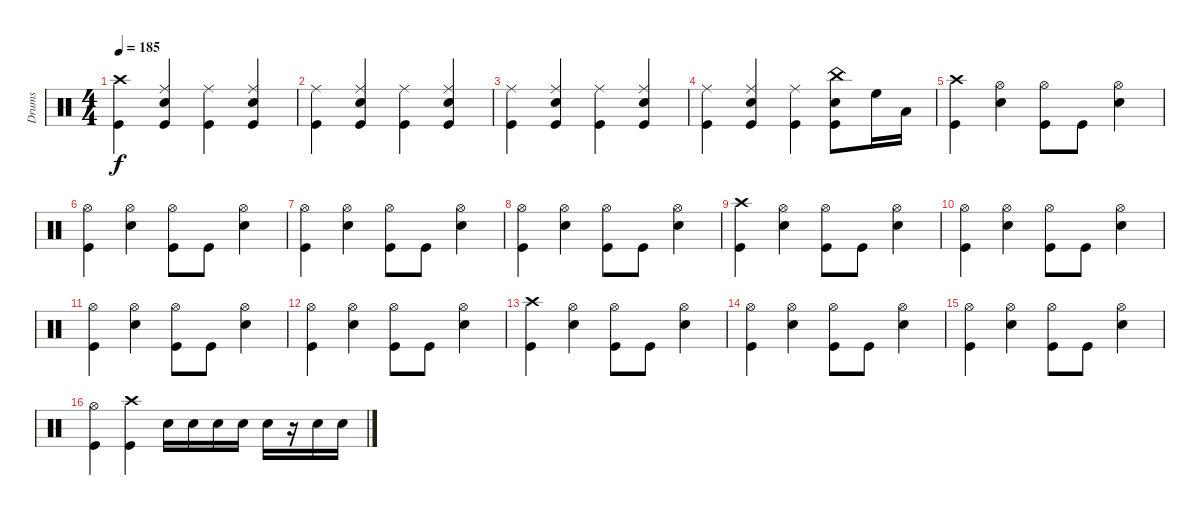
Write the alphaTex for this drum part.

\track ("Drums " "Drums ") {instrument percussion}
\staff {score}
\articulation defaults
\ts (4 4)
\tempo 185
\clef neutral
\ks c
("Crash high (hit)" "Kick (hit)").4{dy f} ("Ride (middle)" "Snare (hit) 2" "Kick (hit)").4 ("Ride (middle)" "Kick (hit)").4 ("Ride (middle)" "Snare (hit) 2" "Kick (hit)").4 |
("Ride (middle)" "Kick (hit)").4 ("Ride (middle)" "Snare (hit) 2" "Kick (hit)").4 ("Ride (middle)" "Kick (hit)").4 ("Ride (middle)" "Snare (hit) 2" "Kick (hit)").4 |
("Ride (middle)" "Kick (hit)").4 ("Ride (middle)" "Snare (hit) 2" "Kick (hit)").4 ("Ride (middle)" "Kick (hit)").4 ("Ride (middle)" "Snare (hit) 2" "Kick (hit)").4 |
("Ride (middle)" "Kick (hit)").4 ("Ride (middle)" "Snare (hit) 2" "Kick (hit)").4 ("Ride (middle)" "Kick (hit)").4 ("China (hit)" "Snare (hit) 2" "Kick (hit)").8 "High Floor Tom (hit)".16 "Low Floor Tom (hit)".16 |
("Crash high (hit)" "Kick (hit)").4 ("Hi-Hat (open)" "Snare (hit) 2").4 ("Hi-Hat (open)" "Kick (hit)").8 "Kick (hit)".8 ("Hi-Hat (open)" "Snare (hit) 2").4 |
("Hi-Hat (open)" "Kick (hit)").4 ("Hi-Hat (open)" "Snare (hit) 2").4 ("Hi-Hat (open)" "Kick (hit)").8 "Kick (hit)".8 ("Hi-Hat (open)" "Snare (hit) 2").4 |
("Hi-Hat (open)" "Kick (hit)").4 ("Hi-Hat (open)" "Snare (hit) 2").4 ("Hi-Hat (open)" "Kick (hit)").8 "Kick (hit)".8 ("Hi-Hat (open)" "Snare (hit) 2").4 |
("Hi-Hat (open)" "Kick (hit)").4 ("Hi-Hat (open)" "Snare (hit) 2").4 ("Hi-Hat (open)" "Kick (hit)").8 "Kick (hit)".8 ("Hi-Hat (open)" "Snare (hit) 2").4 |
("Crash high (hit)" "Kick (hit)").4 ("Hi-Hat (open)" "Snare (hit) 2").4 ("Hi-Hat (open)" "Kick (hit)").8 "Kick (hit)".8 ("Hi-Hat (open)" "Snare (hit) 2").4 |
("Hi-Hat (open)" "Kick (hit)").4 ("Hi-Hat (open)" "Snare (hit) 2").4 ("Hi-Hat (open)" "Kick (hit)").8 "Kick (hit)".8 ("Hi-Hat (open)" "Snare (hit) 2").4 |
("Hi-Hat (open)" "Kick (hit)").4 ("Hi-Hat (open)" "Snare (hit) 2").4 ("Hi-Hat (open)" "Kick (hit)").8 "Kick (hit)".8 ("Hi-Hat (open)" "Snare (hit) 2").4 |
("Hi-Hat (open)" "Kick (hit)").4 ("Hi-Hat (open)" "Snare (hit) 2").4 ("Hi-Hat (open)" "Kick (hit)").8 "Kick (hit)".8 ("Hi-Hat (open)" "Snare (hit) 2").4 |
("Crash high (hit)" "Kick (hit)").4 ("Hi-Hat (open)" "Snare (hit) 2").4 ("Hi-Hat (open)" "Kick (hit)").8 "Kick (hit)".8 ("Hi-Hat (open)" "Snare (hit) 2").4 |
("Hi-Hat (open)" "Kick (hit)").4 ("Hi-Hat (open)" "Snare (hit) 2").4 ("Hi-Hat (open)" "Kick (hit)").8 "Kick (hit)".8 ("Hi-Hat (open)" "Snare (hit) 2").4 |
("Hi-Hat (open)" "Kick (hit)").4 ("Hi-Hat (open)" "Snare (hit) 2").4 ("Hi-Hat (open)" "Kick (hit)").8 "Kick (hit)".8 ("Hi-Hat (open)" "Snare (hit) 2").4 |
("Hi-Hat (open)" "Kick (hit)").4 ("Crash high (hit)" "Kick (hit)").4 "Snare (hit) 2".16 "Snare (hit) 2".16 "Snare (hit) 2".16 "Snare (hit) 2".16 "Snare (hit) 2".16 r.16 "Snare (hit) 2".16 "Snare (hit) 2".16
